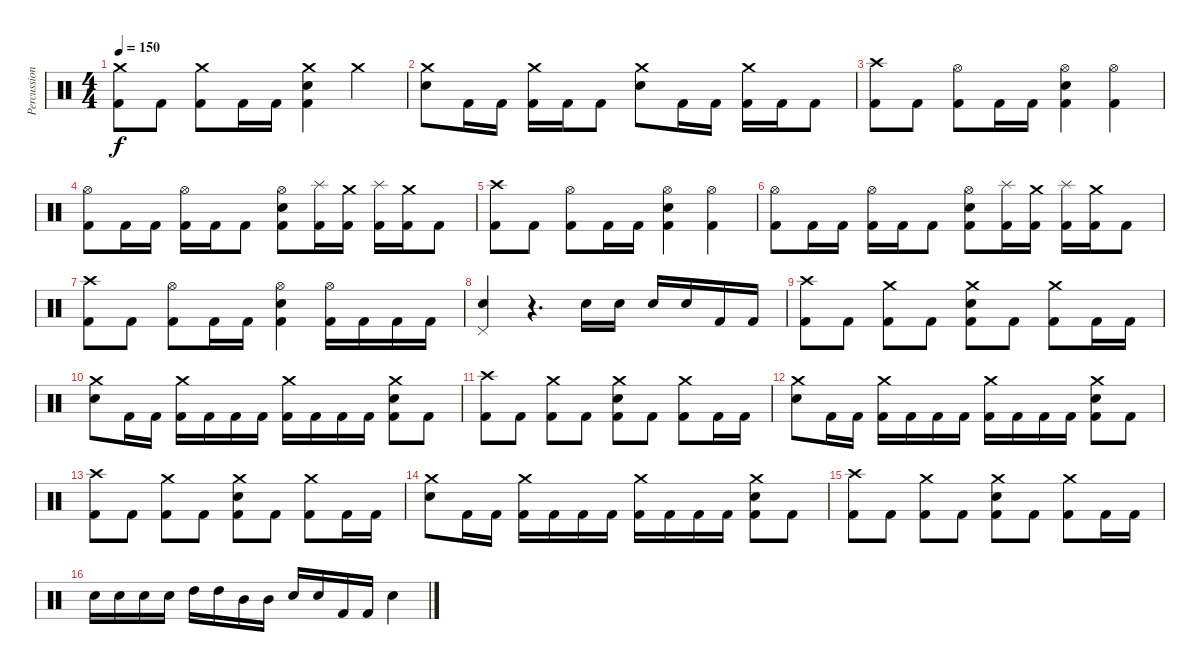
\track ("Percussion" "Percussion") {instrument percussion}
\staff {score}
\articulation defaults
\ts (4 4)
\tempo 150
\clef neutral
\ks c
("Crash medium (hit)" "Kick (hit) 2").8{dy f} "Kick (hit) 2".8 ("Crash medium (hit)" "Kick (hit) 2").8 "Kick (hit) 2".16 "Kick (hit) 2".16 ("Crash medium (hit)" "Electric Snare (hit)" "Kick (hit) 2").4 "Crash medium (hit)".4 |
("Crash medium (hit)" "Electric Snare (hit)").8 "Kick (hit) 2".16 "Kick (hit) 2".16 ("Crash medium (hit)" "Kick (hit) 2").16 "Kick (hit) 2".16 "Kick (hit) 2".8 ("Crash medium (hit)" "Electric Snare (hit)").8 "Kick (hit) 2".16 "Kick (hit) 2".16 ("Crash medium (hit)" "Kick (hit) 2").16 "Kick (hit) 2".16 "Kick (hit) 2".8 |
("Crash high (hit)" "Kick (hit) 2").8 "Kick (hit) 2".8 ("Hi-Hat (open)" "Kick (hit) 2").8 "Kick (hit) 2".16 "Kick (hit) 2".16 ("Hi-Hat (open)" "Electric Snare (hit)" "Kick (hit) 2").4 ("Hi-Hat (open)" "Kick (hit) 2").4 |
("Hi-Hat (open)" "Kick (hit) 2").8 "Kick (hit) 2".16 "Kick (hit) 2".16 ("Hi-Hat (open)" "Kick (hit) 2").16 "Kick (hit) 2".16 "Kick (hit) 2".8 ("Hi-Hat (open)" "Electric Snare (hit)" "Kick (hit) 2").8 ("Splash (hit)" "Kick (hit) 2").16 ("Crash medium (hit)" "Kick (hit) 2").16 ("Splash (hit)" "Kick (hit) 2").16 ("Crash medium (hit)" "Kick (hit) 2").16 "Kick (hit) 2".8 |
("Crash high (hit)" "Kick (hit) 2").8 "Kick (hit) 2".8 ("Hi-Hat (open)" "Kick (hit) 2").8 "Kick (hit) 2".16 "Kick (hit) 2".16 ("Hi-Hat (open)" "Electric Snare (hit)" "Kick (hit) 2").4 ("Hi-Hat (open)" "Kick (hit) 2").4 |
("Hi-Hat (open)" "Kick (hit) 2").8 "Kick (hit) 2".16 "Kick (hit) 2".16 ("Hi-Hat (open)" "Kick (hit) 2").16 "Kick (hit) 2".16 "Kick (hit) 2".8 ("Hi-Hat (open)" "Electric Snare (hit)" "Kick (hit) 2").8 ("Splash (hit)" "Kick (hit) 2").16 ("Crash medium (hit)" "Kick (hit) 2").16 ("Splash (hit)" "Kick (hit) 2").16 ("Crash medium (hit)" "Kick (hit) 2").16 "Kick (hit) 2".8 |
("Crash high (hit)" "Kick (hit) 2").8 "Kick (hit) 2".8 ("Hi-Hat (open)" "Kick (hit) 2").8 "Kick (hit) 2".16 "Kick (hit) 2".16 ("Hi-Hat (open)" "Electric Snare (hit)" "Kick (hit) 2").4 ("Hi-Hat (open)" "Kick (hit) 2").16 "Kick (hit) 2".16 "Kick (hit) 2".16 "Kick (hit) 2".16 |
("Pedal Hi-Hat (hit)" "Electric Snare (hit)").4 r.4{d} "Electric Snare (hit)".16 "Electric Snare (hit)".16 "Electric Snare (hit)".16 "Electric Snare (hit)".16 "Kick (hit) 2".16 "Kick (hit) 2".16 |
("Crash high (hit)" "Kick (hit) 2").8 "Kick (hit) 2".8 ("Crash medium (hit)" "Kick (hit) 2").8 "Kick (hit) 2".8 ("Crash medium (hit)" "Electric Snare (hit)" "Kick (hit) 2").8 "Kick (hit) 2".8 ("Crash medium (hit)" "Kick (hit) 2").8 "Kick (hit) 2".16 "Kick (hit) 2".16 |
("Crash medium (hit)" "Electric Snare (hit)").8 "Kick (hit) 2".16 "Kick (hit) 2".16 ("Crash medium (hit)" "Kick (hit) 2").16 "Kick (hit) 2".16 "Kick (hit) 2".16 "Kick (hit) 2".16 ("Crash medium (hit)" "Kick (hit) 2").16 "Kick (hit) 2".16 "Kick (hit) 2".16 "Kick (hit) 2".16 ("Crash medium (hit)" "Electric Snare (hit)" "Kick (hit) 2").8 "Kick (hit) 2".8 |
("Crash high (hit)" "Kick (hit) 2").8 "Kick (hit) 2".8 ("Crash medium (hit)" "Kick (hit) 2").8 "Kick (hit) 2".8 ("Crash medium (hit)" "Electric Snare (hit)" "Kick (hit) 2").8 "Kick (hit) 2".8 ("Crash medium (hit)" "Kick (hit) 2").8 "Kick (hit) 2".16 "Kick (hit) 2".16 |
("Crash medium (hit)" "Electric Snare (hit)").8 "Kick (hit) 2".16 "Kick (hit) 2".16 ("Crash medium (hit)" "Kick (hit) 2").16 "Kick (hit) 2".16 "Kick (hit) 2".16 "Kick (hit) 2".16 ("Crash medium (hit)" "Kick (hit) 2").16 "Kick (hit) 2".16 "Kick (hit) 2".16 "Kick (hit) 2".16 ("Crash medium (hit)" "Electric Snare (hit)" "Kick (hit) 2").8 "Kick (hit) 2".8 |
("Crash high (hit)" "Kick (hit) 2").8 "Kick (hit) 2".8 ("Crash medium (hit)" "Kick (hit) 2").8 "Kick (hit) 2".8 ("Crash medium (hit)" "Electric Snare (hit)" "Kick (hit) 2").8 "Kick (hit) 2".8 ("Crash medium (hit)" "Kick (hit) 2").8 "Kick (hit) 2".16 "Kick (hit) 2".16 |
("Crash medium (hit)" "Electric Snare (hit)").8 "Kick (hit) 2".16 "Kick (hit) 2".16 ("Crash medium (hit)" "Kick (hit) 2").16 "Kick (hit) 2".16 "Kick (hit) 2".16 "Kick (hit) 2".16 ("Crash medium (hit)" "Kick (hit) 2").16 "Kick (hit) 2".16 "Kick (hit) 2".16 "Kick (hit) 2".16 ("Crash medium (hit)" "Electric Snare (hit)" "Kick (hit) 2").8 "Kick (hit) 2".8 |
("Crash high (hit)" "Kick (hit) 2").8 "Kick (hit) 2".8 ("Crash medium (hit)" "Kick (hit) 2").8 "Kick (hit) 2".8 ("Crash medium (hit)" "Electric Snare (hit)" "Kick (hit) 2").8 "Kick (hit) 2".8 ("Crash medium (hit)" "Kick (hit) 2").8 "Kick (hit) 2".16 "Kick (hit) 2".16 |
"Electric Snare (hit)".16 "Electric Snare (hit)".16 "Electric Snare (hit)".16 "Electric Snare (hit)".16 "High Tom (hit)".16 "High Tom (hit)".16 "Mid Tom (hit)".16 "Mid Tom (hit)".16 "Electric Snare (hit)".16 "Electric Snare (hit)".16 "Kick (hit) 2".16 "Kick (hit) 2".16 "Electric Snare (hit)".4
